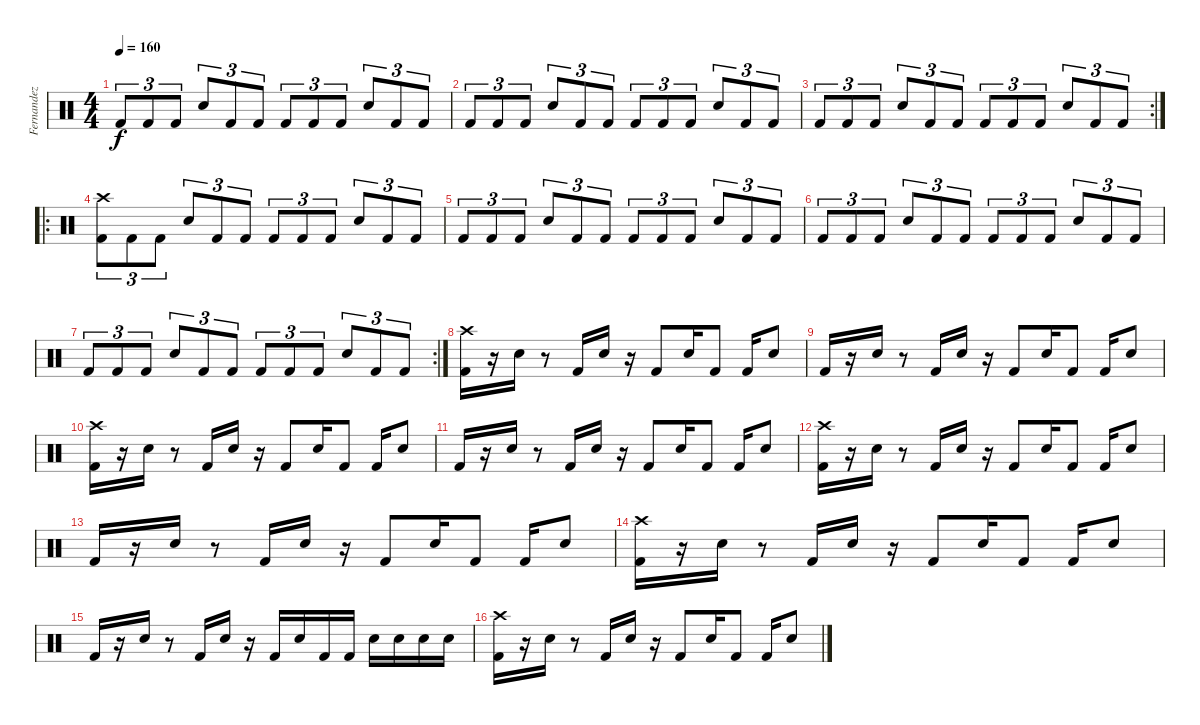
\track ("Fernandez" "Fernandez") {instrument percussion}
\staff {score}
\articulation defaults
\ts (4 4)
\tempo 160
\clef neutral
\ks c "Kick (hit) 2".8{tu (3 2) dy f} "Kick (hit) 2".8{tu (3 2)} "Kick (hit) 2".8{tu (3 2)} "Snare (hit) 2".8{tu (3 2)} "Kick (hit) 2".8{tu (3 2)} "Kick (hit) 2".8{tu (3 2)} "Kick (hit) 2".8{tu (3 2)} "Kick (hit) 2".8{tu (3 2)} "Kick (hit) 2".8{tu (3 2)} "Snare (hit) 2".8{tu (3 2)} "Kick (hit) 2".8{tu (3 2)} "Kick (hit) 2".8{tu (3 2)}
|
"Kick (hit) 2".8{tu (3 2)} "Kick (hit) 2".8{tu (3 2)} "Kick (hit) 2".8{tu (3 2)} "Snare (hit) 2".8{tu (3 2)} "Kick (hit) 2".8{tu (3 2)} "Kick (hit) 2".8{tu (3 2)} "Kick (hit) 2".8{tu (3 2)} "Kick (hit) 2".8{tu (3 2)} "Kick (hit) 2".8{tu (3 2)} "Snare (hit) 2".8{tu (3 2)} "Kick (hit) 2".8{tu (3 2)} "Kick (hit) 2".8{tu (3 2)} |
\rc 2 "Kick (hit) 2".8{tu (3 2)} "Kick (hit) 2".8{tu (3 2)} "Kick (hit) 2".8{tu (3 2)} "Snare (hit) 2".8{tu (3 2)} "Kick (hit) 2".8{tu (3 2)} "Kick (hit) 2".8{tu (3 2)} "Kick (hit) 2".8{tu (3 2)} "Kick (hit) 2".8{tu (3 2)} "Kick (hit) 2".8{tu (3 2)} "Snare (hit) 2".8{tu (3 2)} "Kick (hit) 2".8{tu (3 2)} "Kick (hit) 2".8{tu (3 2)}
|
\ro
("Crash high (hit)" "Kick (hit) 2").8{tu (3 2)} "Kick (hit) 2".8{tu (3 2)} "Kick (hit) 2".8{tu (3 2)} "Snare (hit) 2".8{tu (3 2)} "Kick (hit) 2".8{tu (3 2)} "Kick (hit) 2".8{tu (3 2)} "Kick (hit) 2".8{tu (3 2)} "Kick (hit) 2".8{tu (3 2)} "Kick (hit) 2".8{tu (3 2)} "Snare (hit) 2".8{tu (3 2)} "Kick (hit) 2".8{tu (3 2)} "Kick (hit) 2".8{tu (3 2)} |
"Kick (hit) 2".8{tu (3 2)} "Kick (hit) 2".8{tu (3 2)} "Kick (hit) 2".8{tu (3 2)} "Snare (hit) 2".8{tu (3 2)} "Kick (hit) 2".8{tu (3 2)} "Kick (hit) 2".8{tu (3 2)} "Kick (hit) 2".8{tu (3 2)} "Kick (hit) 2".8{tu (3 2)} "Kick (hit) 2".8{tu (3 2)} "Snare (hit) 2".8{tu (3 2)} "Kick (hit) 2".8{tu (3 2)} "Kick (hit) 2".8{tu (3 2)} |
"Kick (hit) 2".8{tu (3 2)} "Kick (hit) 2".8{tu (3 2)} "Kick (hit) 2".8{tu (3 2)} "Snare (hit) 2".8{tu (3 2)} "Kick (hit) 2".8{tu (3 2)} "Kick (hit) 2".8{tu (3 2)} "Kick (hit) 2".8{tu (3 2)} "Kick (hit) 2".8{tu (3 2)} "Kick (hit) 2".8{tu (3 2)} "Snare (hit) 2".8{tu (3 2)} "Kick (hit) 2".8{tu (3 2)} "Kick (hit) 2".8{tu (3 2)} |
\rc 2 "Kick (hit) 2".8{tu (3 2)} "Kick (hit) 2".8{tu (3 2)} "Kick (hit) 2".8{tu (3 2)} "Snare (hit) 2".8{tu (3 2)} "Kick (hit) 2".8{tu (3 2)} "Kick (hit) 2".8{tu (3 2)} "Kick (hit) 2".8{tu (3 2)} "Kick (hit) 2".8{tu (3 2)} "Kick (hit) 2".8{tu (3 2)} "Snare (hit) 2".8{tu (3 2)} "Kick (hit) 2".8{tu (3 2)} "Kick (hit) 2".8{tu (3 2)}
|
("Kick (hit) 2" "Crash high (hit)").16 r.16 "Snare (hit) 2".16 r.8 "Kick (hit) 2".16 "Snare (hit) 2".16 r.16 "Kick (hit) 2".8 "Snare (hit) 2".16 "Kick (hit) 2".8 "Kick (hit) 2".16 "Snare (hit) 2".8 |
"Kick (hit) 2".16 r.16 "Snare (hit) 2".16 r.8 "Kick (hit) 2".16 "Snare (hit) 2".16 r.16 "Kick (hit) 2".8 "Snare (hit) 2".16 "Kick (hit) 2".8 "Kick (hit) 2".16 "Snare (hit) 2".8 |
("Kick (hit) 2" "Crash high (hit)").16 r.16 "Snare (hit) 2".16 r.8 "Kick (hit) 2".16 "Snare (hit) 2".16 r.16 "Kick (hit) 2".8 "Snare (hit) 2".16 "Kick (hit) 2".8 "Kick (hit) 2".16 "Snare (hit) 2".8 |
"Kick (hit) 2".16 r.16 "Snare (hit) 2".16 r.8 "Kick (hit) 2".16 "Snare (hit) 2".16 r.16 "Kick (hit) 2".8 "Snare (hit) 2".16 "Kick (hit) 2".8 "Kick (hit) 2".16 "Snare (hit) 2".8 |
("Kick (hit) 2" "Crash high (hit)").16 r.16 "Snare (hit) 2".16 r.8 "Kick (hit) 2".16 "Snare (hit) 2".16 r.16 "Kick (hit) 2".8 "Snare (hit) 2".16 "Kick (hit) 2".8 "Kick (hit) 2".16 "Snare (hit) 2".8 |
"Kick (hit) 2".16 r.16 "Snare (hit) 2".16 r.8 "Kick (hit) 2".16 "Snare (hit) 2".16 r.16 "Kick (hit) 2".8 "Snare (hit) 2".16 "Kick (hit) 2".8 "Kick (hit) 2".16 "Snare (hit) 2".8 |
("Kick (hit) 2" "Crash high (hit)").16 r.16 "Snare (hit) 2".16 r.8 "Kick (hit) 2".16 "Snare (hit) 2".16 r.16 "Kick (hit) 2".8 "Snare (hit) 2".16 "Kick (hit) 2".8 "Kick (hit) 2".16 "Snare (hit) 2".8 |
"Kick (hit) 2".16 r.16 "Snare (hit) 2".16 r.8 "Kick (hit) 2".16 "Snare (hit) 2".16 r.16 "Kick (hit) 2".16 "Snare (hit) 2".16 "Kick (hit) 2".16 "Kick (hit) 2".16 "Snare (hit) 2".16 "Snare (hit) 2".16 "Snare (hit) 2".16 "Snare (hit) 2".16 |
("Kick (hit) 2" "Crash high (hit)").16 r.16 "Snare (hit) 2".16 r.8 "Kick (hit) 2".16 "Snare (hit) 2".16 r.16 "Kick (hit) 2".8 "Snare (hit) 2".16 "Kick (hit) 2".8 "Kick (hit) 2".16 "Snare (hit) 2".8
